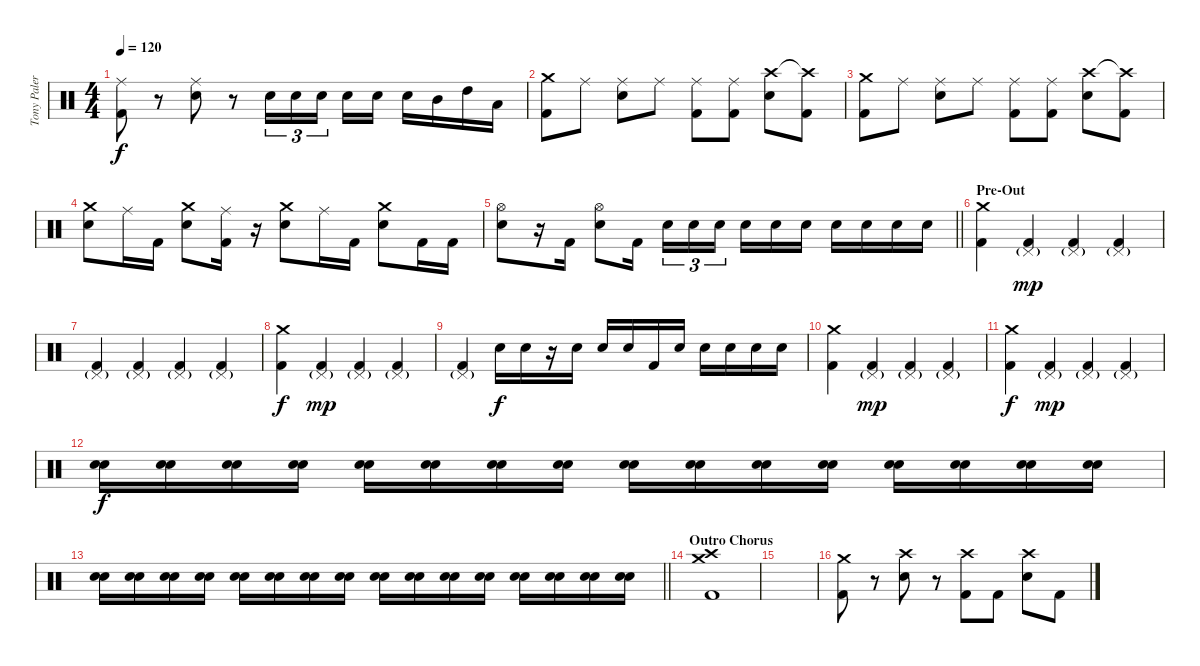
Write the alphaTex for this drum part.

\track ("Tony Palermo " "Tony Paler") {instrument percussion}
\staff {score}
\articulation defaults
\ts (4 4)
\tempo 120
\clef neutral
\ks c
("Ride (middle)" "Kick (hit) 2").8{dy f} r.8 ("Ride (middle)" "Snare (hit) 2").8 r.8 "Snare (hit) 2".16{tu (3 2)} "Snare (hit) 2".16{tu (3 2)} "Snare (hit) 2".16{tu (3 2) beam splitsecondary} "Snare (hit) 2".16 "Snare (hit) 2".16 "Snare (hit) 2".16 "Mid Tom (hit)".16 "High Tom (hit)".16 "Low Tom (hit)".16 |
("Crash medium (hit)" "Kick (hit) 2").8 "Ride (middle)".8 ("Ride (middle)" "Snare (hit) 2").8 "Ride (middle)".8 ("Ride (middle)" "Kick (hit) 2").8 ("Ride (middle)" "Kick (hit) 2").8 ("Crash high (hit)" "Snare (hit) 2").8 ("Crash high (hit)"{t} "Kick (hit) 2").8 |
("Crash medium (hit)" "Kick (hit) 2").8 "Ride (middle)".8 ("Ride (middle)" "Snare (hit) 2").8 "Ride (middle)".8 ("Ride (middle)" "Kick (hit) 2").8 ("Ride (middle)" "Kick (hit) 2").8 ("Crash high (hit)" "Snare (hit) 2").8 ("Crash high (hit)"{t} "Kick (hit) 2").8 |
("Crash medium (hit)" "Snare (hit) 2").8 "Ride (middle)".16 "Kick (hit) 2".16 ("Crash medium (hit)" "Snare (hit) 2").8 ("Ride (middle)" "Kick (hit) 2").16 r.16 ("Crash medium (hit)" "Snare (hit) 2").8 "Ride (middle)".16 "Kick (hit) 2".16 ("Crash medium (hit)" "Snare (hit) 2").8 "Kick (hit) 2".16 "Kick (hit) 2".16 |
\barLineRight lightlight
("Hi-Hat (open)" "Snare (hit) 2").8 r.16 "Kick (hit) 2".16 ("Hi-Hat (open)" "Snare (hit) 2").8 "Kick (hit) 2".16{beam splitsecondary} "Snare (hit) 2".16{tu (3 2)} "Snare (hit) 2".16{tu (3 2)} "Snare (hit) 2".16{tu (3 2) beam splitsecondary} "Snare (hit) 2".16 "Snare (hit) 2".16 "Snare (hit) 2".16 "Snare (hit) 2".16 "Snare (hit) 2".16 "Snare (hit) 2".16 "Snare (hit) 2".16 |
\section ("" "Pre-Out")
("Kick (hit) 2" "Crash medium (hit)").4 ("Kick (hit) 2" "Pedal Hi-Hat (hit)"{g}).4{dy mp} ("Kick (hit) 2" "Pedal Hi-Hat (hit)"{g}).4 ("Kick (hit) 2" "Pedal Hi-Hat (hit)"{g}).4 |
("Kick (hit) 2" "Pedal Hi-Hat (hit)"{g}).4 ("Kick (hit) 2" "Pedal Hi-Hat (hit)"{g}).4 ("Kick (hit) 2" "Pedal Hi-Hat (hit)"{g}).4 ("Kick (hit) 2" "Pedal Hi-Hat (hit)"{g}).4 |
("Kick (hit) 2" "Crash medium (hit)").4{dy f} ("Kick (hit) 2" "Pedal Hi-Hat (hit)"{g}).4{dy mp} ("Kick (hit) 2" "Pedal Hi-Hat (hit)"{g}).4 ("Kick (hit) 2" "Pedal Hi-Hat (hit)"{g}).4 |
("Kick (hit) 2" "Pedal Hi-Hat (hit)"{g}).4 "Snare (hit) 2".16{dy f} "Snare (hit) 2".16 r.16 "Snare (hit) 2".16 "Snare (hit) 2".16 "Snare (hit) 2".16 "Kick (hit) 2".16 "Snare (hit) 2".16 "Snare (hit) 2".16 "Snare (hit) 2".16 "Snare (hit) 2".16 "Snare (hit) 2".16 |
("Kick (hit) 2" "Crash medium (hit)").4 ("Kick (hit) 2" "Pedal Hi-Hat (hit)"{g}).4{dy mp} ("Kick (hit) 2" "Pedal Hi-Hat (hit)"{g}).4 ("Kick (hit) 2" "Pedal Hi-Hat (hit)"{g}).4 |
("Kick (hit) 2" "Crash medium (hit)").4{dy f} ("Kick (hit) 2" "Pedal Hi-Hat (hit)"{g}).4{dy mp} ("Kick (hit) 2" "Pedal Hi-Hat (hit)"{g}).4 ("Kick (hit) 2" "Pedal Hi-Hat (hit)"{g}).4 |
("Snare (hit) 2" "Snare (hit) 2").16{dy f volume 3} ("Snare (hit) 2" "Snare (hit) 2").16 ("Snare (hit) 2" "Snare (hit) 2").16 ("Snare (hit) 2" "Snare (hit) 2").16 ("Snare (hit) 2" "Snare (hit) 2").16{volume 14} ("Snare (hit) 2" "Snare (hit) 2").16 ("Snare (hit) 2" "Snare (hit) 2").16 ("Snare (hit) 2" "Snare (hit) 2").16 ("Snare (hit) 2" "Snare (hit) 2").16 ("Snare (hit) 2" "Snare (hit) 2").16 ("Snare (hit) 2" "Snare (hit) 2").16 ("Snare (hit) 2" "Snare (hit) 2").16 ("Snare (hit) 2" "Snare (hit) 2").16 ("Snare (hit) 2" "Snare (hit) 2").16 ("Snare (hit) 2" "Snare (hit) 2").16 ("Snare (hit) 2" "Snare (hit) 2").16 |
\barLineRight lightlight
("Snare (hit) 2" "Snare (hit) 2").16 ("Snare (hit) 2" "Snare (hit) 2").16 ("Snare (hit) 2" "Snare (hit) 2").16 ("Snare (hit) 2" "Snare (hit) 2").16 ("Snare (hit) 2" "Snare (hit) 2").16 ("Snare (hit) 2" "Snare (hit) 2").16 ("Snare (hit) 2" "Snare (hit) 2").16 ("Snare (hit) 2" "Snare (hit) 2").16 ("Snare (hit) 2" "Snare (hit) 2").16 ("Snare (hit) 2" "Snare (hit) 2").16 ("Snare (hit) 2" "Snare (hit) 2").16 ("Snare (hit) 2" "Snare (hit) 2").16 ("Snare (hit) 2" "Snare (hit) 2").16 ("Snare (hit) 2" "Snare (hit) 2").16 ("Snare (hit) 2" "Snare (hit) 2").16 ("Snare (hit) 2" "Snare (hit) 2").16 |
\section ("" "Outro Chorus")
("Crash medium (hit)" "Crash high (hit)" "Kick (hit) 2").1 |
|
("Crash medium (hit)" "Kick (hit) 2").8 r.8 ("Crash high (hit)" "Snare (hit) 2").8 r.8 ("Crash high (hit)" "Kick (hit) 2").8 "Kick (hit) 2".8 ("Crash high (hit)" "Snare (hit) 2").8 "Kick (hit) 2".8
